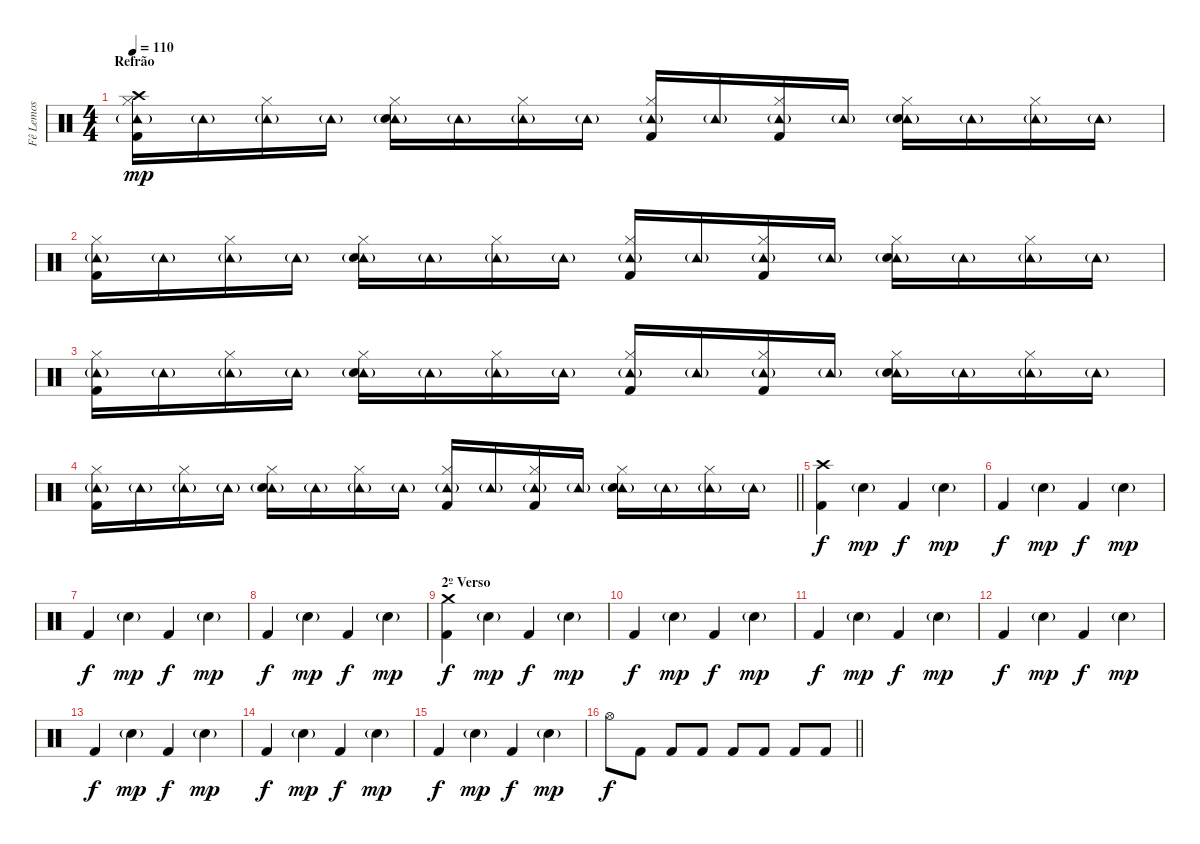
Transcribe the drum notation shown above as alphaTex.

\track ("Fê Lemos" "Fê Lemos") {instrument percussion}
\staff {score}
\articulation defaults
\ts (4 4)
\section ("" "Refrão")
\tempo 110
\clef neutral
\ks c
("Tambourine (hit)"{g} "Crash high (hit)" "Hi-Hat (closed)" "Kick (hit) 2").16{dy mp} "Tambourine (hit)"{g}.16 ("Tambourine (hit)"{g} "Hi-Hat (closed)").16 "Tambourine (hit)"{g}.16 ("Tambourine (hit)"{g} "Hi-Hat (closed)" "Electric Snare (hit)").16 "Tambourine (hit)"{g}.16 ("Tambourine (hit)"{g} "Hi-Hat (closed)").16 "Tambourine (hit)"{g}.16 ("Tambourine (hit)"{g} "Hi-Hat (closed)" "Kick (hit) 2").16 "Tambourine (hit)"{g}.16 ("Tambourine (hit)"{g} "Hi-Hat (closed)" "Kick (hit) 2").16 "Tambourine (hit)"{g}.16 ("Tambourine (hit)"{g} "Hi-Hat (closed)" "Electric Snare (hit)").16 "Tambourine (hit)"{g}.16 ("Tambourine (hit)"{g} "Hi-Hat (closed)").16 "Tambourine (hit)"{g}.16 |
("Tambourine (hit)"{g} "Hi-Hat (closed)" "Kick (hit) 2").16 "Tambourine (hit)"{g}.16 ("Tambourine (hit)"{g} "Hi-Hat (closed)").16 "Tambourine (hit)"{g}.16 ("Tambourine (hit)"{g} "Hi-Hat (closed)" "Electric Snare (hit)").16 "Tambourine (hit)"{g}.16 ("Tambourine (hit)"{g} "Hi-Hat (closed)").16 "Tambourine (hit)"{g}.16 ("Tambourine (hit)"{g} "Hi-Hat (closed)" "Kick (hit) 2").16 "Tambourine (hit)"{g}.16 ("Tambourine (hit)"{g} "Hi-Hat (closed)" "Kick (hit) 2").16 "Tambourine (hit)"{g}.16 ("Tambourine (hit)"{g} "Hi-Hat (closed)" "Electric Snare (hit)").16 "Tambourine (hit)"{g}.16 ("Tambourine (hit)"{g} "Hi-Hat (closed)").16 "Tambourine (hit)"{g}.16 |
("Tambourine (hit)"{g} "Hi-Hat (closed)" "Kick (hit) 2").16 "Tambourine (hit)"{g}.16 ("Tambourine (hit)"{g} "Hi-Hat (closed)").16 "Tambourine (hit)"{g}.16 ("Tambourine (hit)"{g} "Hi-Hat (closed)" "Electric Snare (hit)").16 "Tambourine (hit)"{g}.16 ("Tambourine (hit)"{g} "Hi-Hat (closed)").16 "Tambourine (hit)"{g}.16 ("Tambourine (hit)"{g} "Hi-Hat (closed)" "Kick (hit) 2").16 "Tambourine (hit)"{g}.16 ("Tambourine (hit)"{g} "Hi-Hat (closed)" "Kick (hit) 2").16 "Tambourine (hit)"{g}.16 ("Tambourine (hit)"{g} "Hi-Hat (closed)" "Electric Snare (hit)").16 "Tambourine (hit)"{g}.16 ("Tambourine (hit)"{g} "Hi-Hat (closed)").16 "Tambourine (hit)"{g}.16 |
\barLineRight lightlight
("Tambourine (hit)"{g} "Hi-Hat (closed)" "Kick (hit) 2").16 "Tambourine (hit)"{g}.16 ("Tambourine (hit)"{g} "Hi-Hat (closed)").16 "Tambourine (hit)"{g}.16 ("Tambourine (hit)"{g} "Hi-Hat (closed)" "Electric Snare (hit)").16 "Tambourine (hit)"{g}.16 ("Tambourine (hit)"{g} "Hi-Hat (closed)").16 "Tambourine (hit)"{g}.16 ("Tambourine (hit)"{g} "Hi-Hat (closed)" "Kick (hit) 2").16 "Tambourine (hit)"{g}.16 ("Tambourine (hit)"{g} "Hi-Hat (closed)" "Kick (hit) 2").16 "Tambourine (hit)"{g}.16 ("Tambourine (hit)"{g} "Hi-Hat (closed)" "Electric Snare (hit)").16 "Tambourine (hit)"{g}.16 ("Tambourine (hit)"{g} "Hi-Hat (closed)").16 "Tambourine (hit)"{g}.16 |
("Crash high (hit)" "Kick (hit) 2").4{dy f} "Electric Snare (hit)"{g}.4{dy mp} "Kick (hit) 2".4{dy f} "Electric Snare (hit)"{g}.4{dy mp} |
"Kick (hit) 2".4{dy f} "Electric Snare (hit)"{g}.4{dy mp} "Kick (hit) 2".4{dy f} "Electric Snare (hit)"{g}.4{dy mp} |
"Kick (hit) 2".4{dy f} "Electric Snare (hit)"{g}.4{dy mp} "Kick (hit) 2".4{dy f} "Electric Snare (hit)"{g}.4{dy mp} |
"Kick (hit) 2".4{dy f} "Electric Snare (hit)"{g}.4{dy mp} "Kick (hit) 2".4{dy f} "Electric Snare (hit)"{g}.4{dy mp} |
\section ("" "2º Verso")
("Crash medium (hit)" "Kick (hit) 2").4{dy f} "Electric Snare (hit)"{g}.4{dy mp} "Kick (hit) 2".4{dy f} "Electric Snare (hit)"{g}.4{dy mp} |
"Kick (hit) 2".4{dy f} "Electric Snare (hit)"{g}.4{dy mp} "Kick (hit) 2".4{dy f} "Electric Snare (hit)"{g}.4{dy mp} |
"Kick (hit) 2".4{dy f} "Electric Snare (hit)"{g}.4{dy mp} "Kick (hit) 2".4{dy f} "Electric Snare (hit)"{g}.4{dy mp} |
"Kick (hit) 2".4{dy f} "Electric Snare (hit)"{g}.4{dy mp} "Kick (hit) 2".4{dy f} "Electric Snare (hit)"{g}.4{dy mp} |
"Kick (hit) 2".4{dy f} "Electric Snare (hit)"{g}.4{dy mp} "Kick (hit) 2".4{dy f} "Electric Snare (hit)"{g}.4{dy mp} |
"Kick (hit) 2".4{dy f} "Electric Snare (hit)"{g}.4{dy mp} "Kick (hit) 2".4{dy f} "Electric Snare (hit)"{g}.4{dy mp} |
"Kick (hit) 2".4{dy f} "Electric Snare (hit)"{g}.4{dy mp} "Kick (hit) 2".4{dy f} "Electric Snare (hit)"{g}.4{dy mp} |
\barLineRight lightlight "Hi-Hat (open)".8{dy f} "Kick (hit) 2".8 "Kick (hit) 2".8 "Kick (hit) 2".8 "Kick (hit) 2".8 "Kick (hit) 2".8 "Kick (hit) 2".8 "Kick (hit) 2".8
